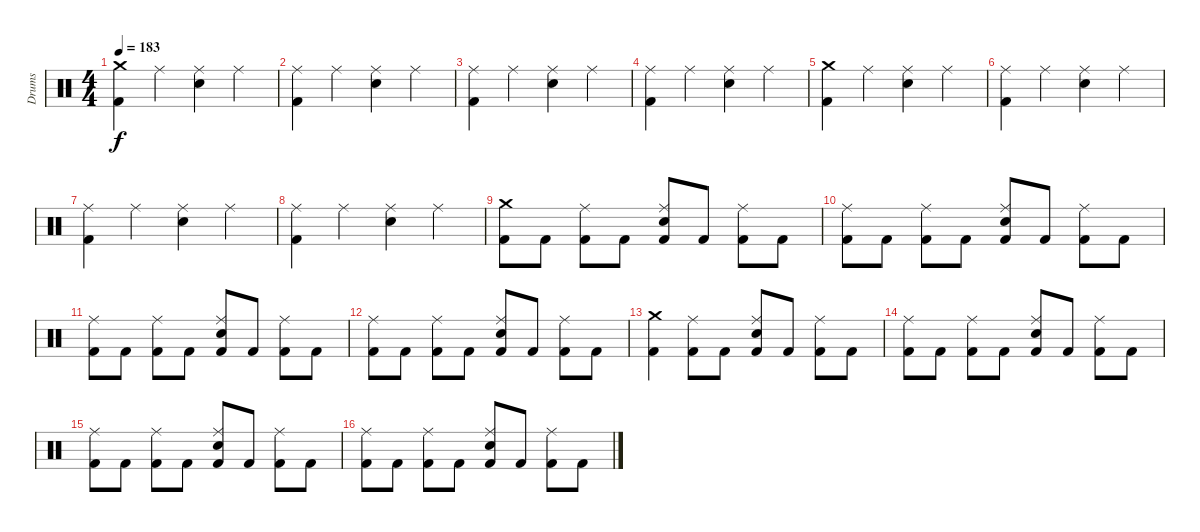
\track ("Drums" "Drums") {instrument percussion}
\staff {score}
\articulation defaults
\ts (4 4)
\tempo 183
\clef neutral
\ks c
("Crash medium (hit)" "Kick (hit) 2").4{dy f} "Ride (middle)".4 ("Ride (middle)" "Electric Snare (hit)").4 "Ride (middle)".4 |
("Ride (middle)" "Kick (hit) 2").4 "Ride (middle)".4 ("Ride (middle)" "Electric Snare (hit)").4 "Ride (middle)".4 |
("Ride (middle)" "Kick (hit) 2").4 "Ride (middle)".4 ("Ride (middle)" "Electric Snare (hit)").4 "Ride (middle)".4 |
("Ride (middle)" "Kick (hit) 2").4 "Ride (middle)".4 ("Ride (middle)" "Electric Snare (hit)").4 "Ride (middle)".4 |
("Crash medium (hit)" "Kick (hit) 2").4 "Ride (middle)".4 ("Ride (middle)" "Electric Snare (hit)").4 "Ride (middle)".4 |
("Ride (middle)" "Kick (hit) 2").4 "Ride (middle)".4 ("Ride (middle)" "Electric Snare (hit)").4 "Ride (middle)".4 |
("Ride (middle)" "Kick (hit) 2").4 "Ride (middle)".4 ("Ride (middle)" "Electric Snare (hit)").4 "Ride (middle)".4 |
("Ride (middle)" "Kick (hit) 2").4 "Ride (middle)".4 ("Ride (middle)" "Electric Snare (hit)").4 "Ride (middle)".4 |
\section ("" "")
("Crash medium (hit)" "Kick (hit) 2").8 "Kick (hit) 2".8 ("Ride (middle)" "Kick (hit) 2").8 "Kick (hit) 2".8 ("Ride (middle)" "Electric Snare (hit)" "Kick (hit) 2").8 "Kick (hit) 2".8 ("Ride (middle)" "Kick (hit) 2").8 "Kick (hit) 2".8 |
("Ride (middle)" "Kick (hit) 2").8 "Kick (hit) 2".8 ("Ride (middle)" "Kick (hit) 2").8 "Kick (hit) 2".8 ("Ride (middle)" "Electric Snare (hit)" "Kick (hit) 2").8 "Kick (hit) 2".8 ("Ride (middle)" "Kick (hit) 2").8 "Kick (hit) 2".8 |
("Ride (middle)" "Kick (hit) 2").8 "Kick (hit) 2".8 ("Ride (middle)" "Kick (hit) 2").8 "Kick (hit) 2".8 ("Ride (middle)" "Electric Snare (hit)" "Kick (hit) 2").8 "Kick (hit) 2".8 ("Ride (middle)" "Kick (hit) 2").8 "Kick (hit) 2".8 |
("Ride (middle)" "Kick (hit) 2").8 "Kick (hit) 2".8 ("Ride (middle)" "Kick (hit) 2").8 "Kick (hit) 2".8 ("Ride (middle)" "Electric Snare (hit)" "Kick (hit) 2").8 "Kick (hit) 2".8 ("Ride (middle)" "Kick (hit) 2").8 "Kick (hit) 2".8 |
("Crash medium (hit)" "Kick (hit) 2").4 ("Ride (middle)" "Kick (hit) 2").8 "Kick (hit) 2".8 ("Ride (middle)" "Electric Snare (hit)" "Kick (hit) 2").8 "Kick (hit) 2".8 ("Ride (middle)" "Kick (hit) 2").8 "Kick (hit) 2".8 |
("Ride (middle)" "Kick (hit) 2").8 "Kick (hit) 2".8 ("Ride (middle)" "Kick (hit) 2").8 "Kick (hit) 2".8 ("Ride (middle)" "Electric Snare (hit)" "Kick (hit) 2").8 "Kick (hit) 2".8 ("Ride (middle)" "Kick (hit) 2").8 "Kick (hit) 2".8 |
("Ride (middle)" "Kick (hit) 2").8 "Kick (hit) 2".8 ("Ride (middle)" "Kick (hit) 2").8 "Kick (hit) 2".8 ("Ride (middle)" "Electric Snare (hit)" "Kick (hit) 2").8 "Kick (hit) 2".8 ("Ride (middle)" "Kick (hit) 2").8 "Kick (hit) 2".8 |
("Ride (middle)" "Kick (hit) 2").8 "Kick (hit) 2".8 ("Ride (middle)" "Kick (hit) 2").8 "Kick (hit) 2".8 ("Ride (middle)" "Electric Snare (hit)" "Kick (hit) 2").8 "Kick (hit) 2".8 ("Ride (middle)" "Kick (hit) 2").8 "Kick (hit) 2".8
